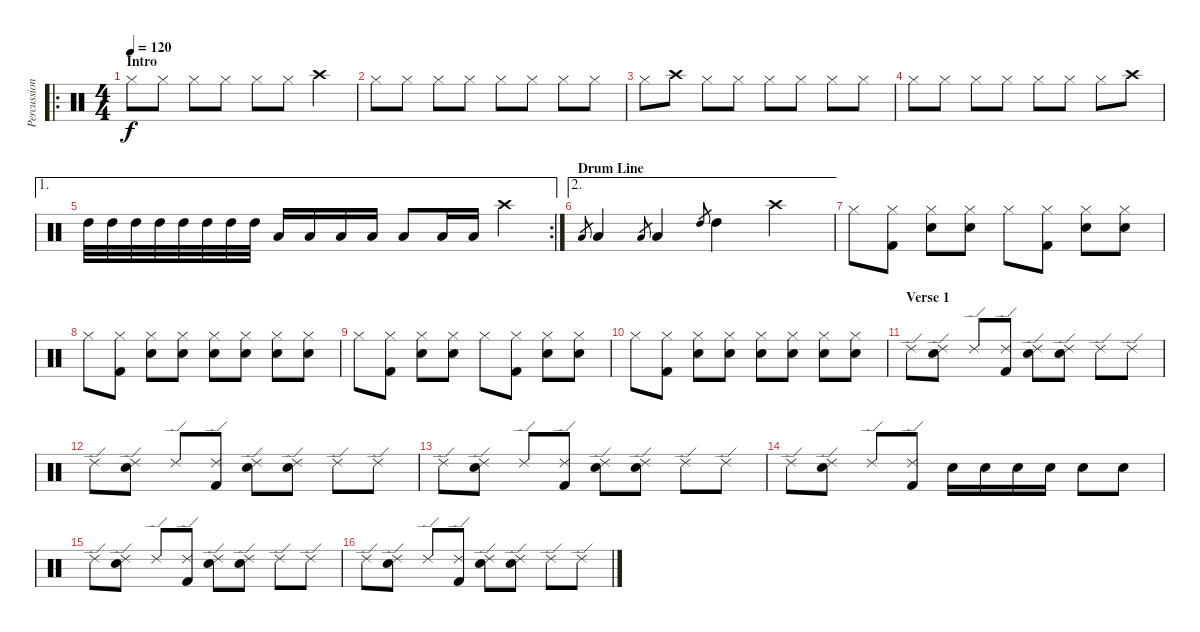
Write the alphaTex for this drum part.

\track ("Percussion" "Percussion") {instrument percussion}
\staff {score}
\articulation defaults
\ro
\ts (4 4)
\section ("" "Intro")
\tempo 120
\clef neutral
\ks c "Hi-Hat (closed)".8{dy f} "Hi-Hat (closed)".8 "Hi-Hat (closed)".8 "Hi-Hat (closed)".8 "Hi-Hat (closed)".8 "Hi-Hat (closed)".8 "Crash high (hit)".4
|
\ks aminor "Hi-Hat (closed)".8 "Hi-Hat (closed)".8 "Hi-Hat (closed)".8 "Hi-Hat (closed)".8 "Hi-Hat (closed)".8 "Hi-Hat (closed)".8 "Hi-Hat (closed)".8 "Hi-Hat (closed)".8
|
\ks c "Hi-Hat (closed)".8 "Crash high (hit)".8 "Hi-Hat (closed)".8 "Hi-Hat (closed)".8 "Hi-Hat (closed)".8 "Hi-Hat (closed)".8 "Hi-Hat (closed)".8 "Hi-Hat (closed)".8
|
"Hi-Hat (closed)".8 "Hi-Hat (closed)".8 "Hi-Hat (closed)".8 "Hi-Hat (closed)".8 "Hi-Hat (closed)".8 "Hi-Hat (closed)".8 "Hi-Hat (closed)".8 "Crash high (hit)".8 |
\ae 1
\rc 2 "High Tom (hit)".32 "High Tom (hit)".32 "High Tom (hit)".32 "High Tom (hit)".32 "High Tom (hit)".32 "High Tom (hit)".32 "High Tom (hit)".32 "High Tom (hit)".32 "Low Tom (hit)".16 "Low Tom (hit)".16 "Low Tom (hit)".16 "Low Tom (hit)".16 "Low Floor Tom (hit)".8 "Low Floor Tom (hit)".16 "Low Floor Tom (hit)".16 "Crash high (hit)".4
|
\ae 2
\section ("" "Drum Line")
"Low Floor Tom (hit)".8{gr} "Low Floor Tom (hit)".4 "Low Tom (hit)".8{gr} "Low Tom (hit)".4 "High Tom (hit)".8{gr} "High Tom (hit)".4 "Crash high (hit)".4 |
"Hi-Hat (closed)".8 ("Hi-Hat (closed)" "Kick (hit) 2").8 ("Hi-Hat (closed)" "Electric Snare (hit)").8 ("Hi-Hat (closed)" "Electric Snare (hit)").8 "Hi-Hat (closed)".8 ("Hi-Hat (closed)" "Kick (hit) 2").8 ("Hi-Hat (closed)" "Electric Snare (hit)").8 ("Hi-Hat (closed)" "Electric Snare (hit)").8 |
"Hi-Hat (closed)".8 ("Hi-Hat (closed)" "Kick (hit) 2").8 ("Hi-Hat (closed)" "Electric Snare (hit)").8 ("Hi-Hat (closed)" "Electric Snare (hit)").8 ("Hi-Hat (closed)" "Electric Snare (hit)").8 ("Hi-Hat (closed)" "Electric Snare (hit)").8 ("Hi-Hat (closed)" "Electric Snare (hit)").8 ("Hi-Hat (closed)" "Electric Snare (hit)").8 |
"Hi-Hat (closed)".8 ("Hi-Hat (closed)" "Kick (hit) 2").8 ("Hi-Hat (closed)" "Electric Snare (hit)").8 ("Hi-Hat (closed)" "Electric Snare (hit)").8 "Hi-Hat (closed)".8 ("Hi-Hat (closed)" "Kick (hit) 2").8 ("Hi-Hat (closed)" "Electric Snare (hit)").8 ("Hi-Hat (closed)" "Electric Snare (hit)").8 |
"Hi-Hat (closed)".8 ("Hi-Hat (closed)" "Kick (hit) 2").8 ("Hi-Hat (closed)" "Electric Snare (hit)").8 ("Hi-Hat (closed)" "Electric Snare (hit)").8 ("Hi-Hat (closed)" "Electric Snare (hit)").8 ("Hi-Hat (closed)" "Electric Snare (hit)").8 ("Hi-Hat (closed)" "Electric Snare (hit)").8 ("Hi-Hat (closed)" "Electric Snare (hit)").8 |
\section ("" "Verse 1")
"Ride (edge) 2".8 ("Ride (edge) 2" "Electric Snare (hit)").8 "Ride (edge) 2".8 ("Ride (edge) 2" "Kick (hit) 2").8 ("Ride (edge) 2" "Electric Snare (hit)").8 ("Ride (edge) 2" "Electric Snare (hit)").8 "Ride (edge) 2".8 "Ride (edge) 2".8 |
"Ride (edge) 2".8 ("Ride (edge) 2" "Electric Snare (hit)").8 "Ride (edge) 2".8 ("Ride (edge) 2" "Kick (hit) 2").8 ("Ride (edge) 2" "Electric Snare (hit)").8 ("Ride (edge) 2" "Electric Snare (hit)").8 "Ride (edge) 2".8 "Ride (edge) 2".8 |
"Ride (edge) 2".8 ("Ride (edge) 2" "Electric Snare (hit)").8 "Ride (edge) 2".8 ("Ride (edge) 2" "Kick (hit) 2").8 ("Ride (edge) 2" "Electric Snare (hit)").8 ("Ride (edge) 2" "Electric Snare (hit)").8 "Ride (edge) 2".8 "Ride (edge) 2".8 |
"Ride (edge) 2".8 ("Ride (edge) 2" "Electric Snare (hit)").8 "Ride (edge) 2".8 ("Ride (edge) 2" "Kick (hit) 2").8 "Electric Snare (hit)".16 "Electric Snare (hit)".16 "Electric Snare (hit)".16 "Electric Snare (hit)".16 "Electric Snare (hit)".8 "Electric Snare (hit)".8 |
"Ride (edge) 2".8 ("Ride (edge) 2" "Electric Snare (hit)").8 "Ride (edge) 2".8 ("Ride (edge) 2" "Kick (hit) 2").8 ("Ride (edge) 2" "Electric Snare (hit)").8 ("Ride (edge) 2" "Electric Snare (hit)").8 "Ride (edge) 2".8 "Ride (edge) 2".8 |
"Ride (edge) 2".8 ("Ride (edge) 2" "Electric Snare (hit)").8 "Ride (edge) 2".8 ("Ride (edge) 2" "Kick (hit) 2").8 ("Ride (edge) 2" "Electric Snare (hit)").8 ("Ride (edge) 2" "Electric Snare (hit)").8 "Ride (edge) 2".8 "Ride (edge) 2".8
